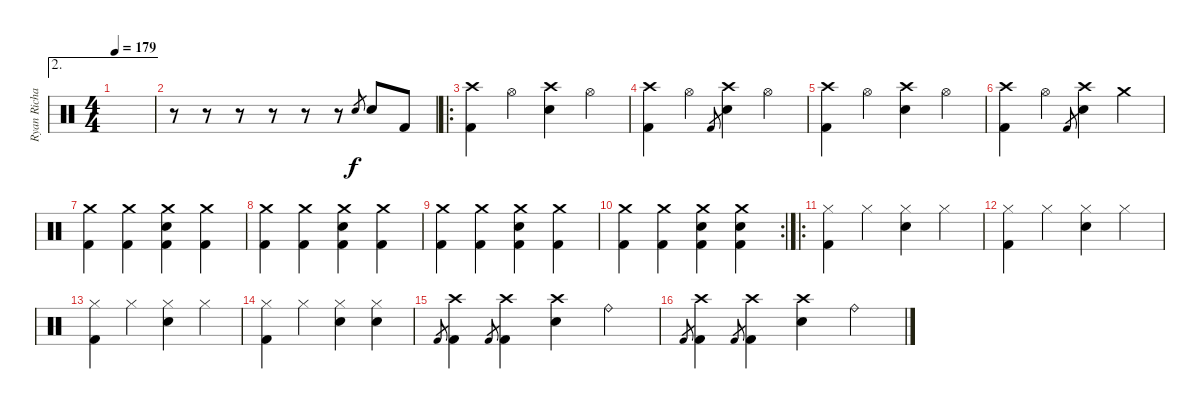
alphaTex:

\track ("Ryan Richards" "Ryan Richa") {instrument percussion}
\staff {score}
\articulation defaults
\ae 2
\ts (4 4)
\tempo 179
\clef neutral
\ks c
|
r.8 r.8 r.8 r.8 r.8 r.8 "Snare (hit) 2".8{gr} "Snare (hit) 2".8 "Kick (hit) 2".8 |
\ro
("Crash high (hit)" "Kick (hit) 2").4 "Hi-Hat (open)".4 ("Crash high (hit)" "Snare (hit) 2").4 "Hi-Hat (open)".4 |
("Crash high (hit)" "Kick (hit) 2").4 "Hi-Hat (open)".4 "Kick (hit) 2".8{gr} ("Crash high (hit)" "Snare (hit) 2").4 "Hi-Hat (open)".4 |
("Crash high (hit)" "Kick (hit) 2").4 "Hi-Hat (open)".4 ("Crash high (hit)" "Snare (hit) 2").4 "Hi-Hat (open)".4 |
("Crash high (hit)" "Kick (hit) 2").4 "Hi-Hat (open)".4 "Kick (hit) 2".8{gr} ("Crash high (hit)" "Snare (hit) 2").4 "Crash medium (hit)".4 |
("Crash medium (hit)" "Kick (hit) 2").4 ("Crash medium (hit)" "Kick (hit) 2").4 ("Crash medium (hit)" "Snare (hit) 2" "Kick (hit) 2").4 ("Crash medium (hit)" "Kick (hit) 2").4 |
("Crash medium (hit)" "Kick (hit) 2").4 ("Crash medium (hit)" "Kick (hit) 2").4 ("Crash medium (hit)" "Snare (hit) 2" "Kick (hit) 2").4 ("Crash medium (hit)" "Kick (hit) 2").4 |
("Crash medium (hit)" "Kick (hit) 2").4 ("Crash medium (hit)" "Kick (hit) 2").4 ("Crash medium (hit)" "Snare (hit) 2" "Kick (hit) 2").4 ("Crash medium (hit)" "Kick (hit) 2").4 |
\rc 2
("Crash medium (hit)" "Kick (hit) 2").4 ("Crash medium (hit)" "Kick (hit) 2").4 ("Crash medium (hit)" "Snare (hit) 2" "Kick (hit) 2").4 ("Crash medium (hit)" "Snare (hit) 2" "Kick (hit) 2").4 |
\ro
("Hi-Hat (closed)" "Kick (hit) 2").4 "Hi-Hat (closed)".4 ("Hi-Hat (closed)" "Snare (hit) 2").4 "Hi-Hat (closed)".4 |
("Hi-Hat (closed)" "Kick (hit) 2").4 "Hi-Hat (closed)".4 ("Hi-Hat (closed)" "Snare (hit) 2").4 "Hi-Hat (closed)".4 |
("Hi-Hat (closed)" "Kick (hit) 2").4 "Hi-Hat (closed)".4 ("Hi-Hat (closed)" "Snare (hit) 2").4 "Hi-Hat (closed)".4 |
("Hi-Hat (closed)" "Kick (hit) 2").4 "Hi-Hat (closed)".4 ("Hi-Hat (closed)" "Snare (hit) 2").4 ("Hi-Hat (closed)" "Snare (hit) 2").4 |
"Kick (hit) 2".8{gr} ("Crash high (hit)" "Kick (hit) 2").4 "Kick (hit) 2".8{gr} ("Crash high (hit)" "Kick (hit) 2").4 ("Crash high (hit)" "Snare (hit) 2").4 "Ride (bell)".4 |
"Kick (hit) 2".8{gr} ("Crash high (hit)" "Kick (hit) 2").4 "Kick (hit) 2".8{gr} ("Crash high (hit)" "Kick (hit) 2").4 ("Crash high (hit)" "Snare (hit) 2").4 "Ride (bell)".4
